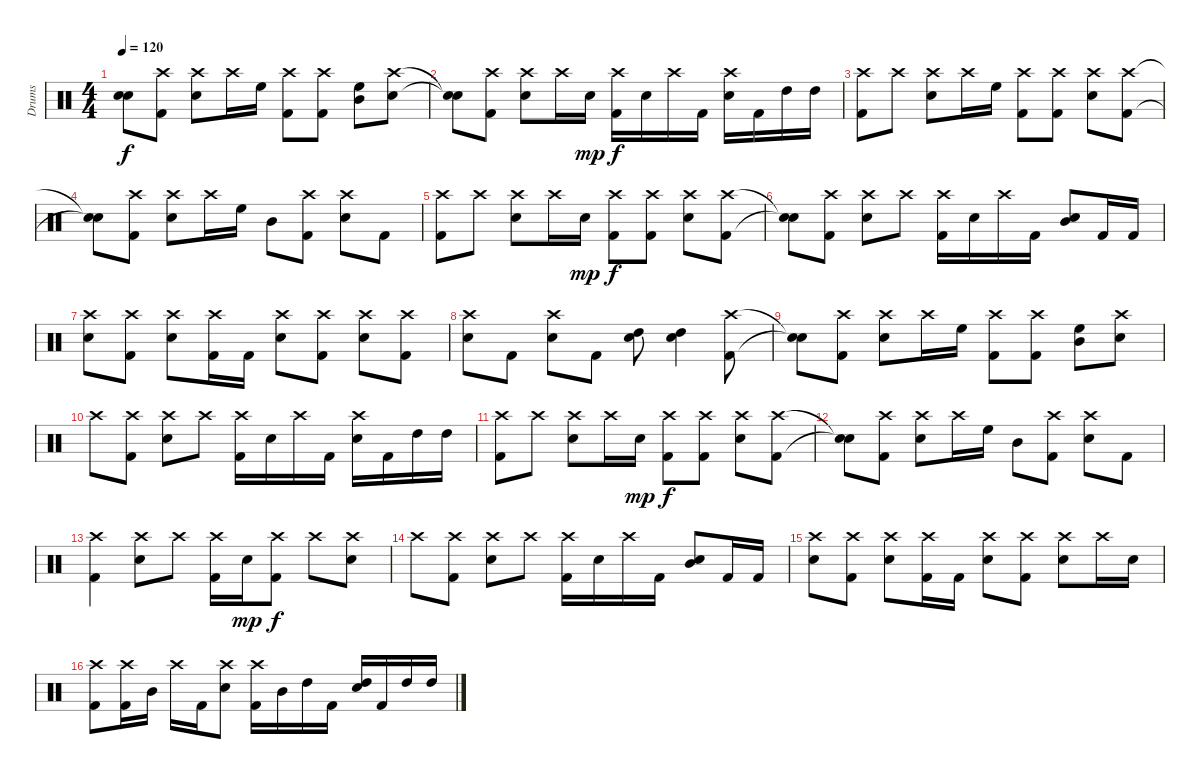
\track ("Drums" "Drums") {instrument percussion}
\staff {score}
\articulation defaults
\ts (4 4)
\tempo 120
\clef neutral
\ks c
("Snare (hit)"{t} "Snare (hit)"{t}).8{dy f} ("Crash high (hit)" "Kick (hit) 2").8 ("Crash high (hit)" "Electric Snare (hit)").8 "Crash high (hit)".16 "High Floor Tom (hit)".16 ("Crash high (hit)" "Kick (hit) 2").8 ("Crash high (hit)" "Kick (hit) 2").8 ("High Floor Tom (hit)" "Mid Tom (hit)").8 ("Crash high (hit)" "Electric Snare (hit)").8 |
("Snare (hit)"{t} "Snare (hit)"{t}).8 ("Crash high (hit)" "Kick (hit) 2").8 ("Crash high (hit)" "Electric Snare (hit)").8 "Crash high (hit)".16 "Electric Snare (hit)".16{dy mp} ("Crash high (hit)" "Kick (hit) 2").16{dy f} "Electric Snare (hit)".16 "Crash high (hit)".16 "Kick (hit) 2".16 ("Crash high (hit)" "Electric Snare (hit)").16 "Kick (hit) 2".16 "High Tom (hit)".16 "High Tom (hit)".16 |
("Crash high (hit)" "Kick (hit) 2").8 "Crash high (hit)".8 ("Crash high (hit)" "Electric Snare (hit)").8 "Crash high (hit)".16 "High Floor Tom (hit)".16 ("Crash high (hit)" "Kick (hit) 2").8 ("Crash high (hit)" "Kick (hit) 2").8 ("Crash high (hit)" "Electric Snare (hit)").8 ("Crash high (hit)" "Kick (hit) 2").8 |
("Snare (hit)"{t} "Snare (hit)"{t}).8 ("Crash high (hit)" "Kick (hit) 2").8 ("Crash high (hit)" "Electric Snare (hit)").8 "Crash high (hit)".16 "High Floor Tom (hit)".16 "Mid Tom (hit)".8 ("Crash high (hit)" "Kick (hit) 2").8 ("Crash high (hit)" "Electric Snare (hit)").8 "Kick (hit) 2".8 |
("Crash high (hit)" "Kick (hit) 2").8 "Crash high (hit)".8 ("Crash high (hit)" "Electric Snare (hit)").8 "Crash high (hit)".16 "Electric Snare (hit)".16{dy mp} ("Crash high (hit)" "Kick (hit) 2").8{dy f} ("Crash high (hit)" "Kick (hit) 2").8 ("Crash high (hit)" "Electric Snare (hit)").8 ("Crash high (hit)" "Kick (hit) 2").8 |
("Snare (hit)"{t} "Snare (hit)"{t}).8 ("Crash high (hit)" "Kick (hit) 2").8 ("Crash high (hit)" "Electric Snare (hit)").8 "Crash high (hit)".8 ("Crash high (hit)" "Kick (hit) 2").16 "Electric Snare (hit)".16 "Crash high (hit)".16 "Kick (hit) 2".16 ("Mid Tom (hit)" "Electric Snare (hit)").8 "Kick (hit) 2".16 "Kick (hit) 2".16 |
("Crash high (hit)" "Electric Snare (hit)").8 ("Crash high (hit)" "Kick (hit) 2").8 ("Crash high (hit)" "Electric Snare (hit)").8 ("Crash high (hit)" "Kick (hit) 2").16 "Kick (hit) 2".16 ("Crash high (hit)" "Electric Snare (hit)").8 ("Crash high (hit)" "Kick (hit) 2").8 ("Crash high (hit)" "Electric Snare (hit)").8 ("Crash high (hit)" "Kick (hit) 2").8 |
("Crash high (hit)" "Electric Snare (hit)").8 "Kick (hit) 2".8 ("Crash high (hit)" "Electric Snare (hit)").8 "Kick (hit) 2".8 ("Electric Snare (hit)" "High Tom (hit)").8 ("Electric Snare (hit)" "High Tom (hit)").4 ("Crash high (hit)" "Kick (hit) 2").8 |
("Snare (hit)"{t} "Snare (hit)"{t}).8 ("Crash high (hit)" "Kick (hit) 2").8 ("Crash high (hit)" "Electric Snare (hit)").8 "Crash high (hit)".16 "High Floor Tom (hit)".16 ("Crash high (hit)" "Kick (hit) 2").8 ("Crash high (hit)" "Kick (hit) 2").8 ("High Floor Tom (hit)" "Mid Tom (hit)").8 ("Crash high (hit)" "Electric Snare (hit)").8 |
"Crash high (hit)".8 ("Crash high (hit)" "Kick (hit) 2").8 ("Crash high (hit)" "Electric Snare (hit)").8 "Crash high (hit)".8 ("Crash high (hit)" "Kick (hit) 2").16 "Electric Snare (hit)".16 "Crash high (hit)".16 "Kick (hit) 2".16 ("Crash high (hit)" "Electric Snare (hit)").16 "Kick (hit) 2".16 "High Tom (hit)".16 "High Tom (hit)".16 |
("Crash high (hit)" "Kick (hit) 2").8 "Crash high (hit)".8 ("Crash high (hit)" "Electric Snare (hit)").8 "Crash high (hit)".16 "Electric Snare (hit)".16{dy mp} ("Crash high (hit)" "Kick (hit) 2").8{dy f} ("Crash high (hit)" "Kick (hit) 2").8 ("Crash high (hit)" "Electric Snare (hit)").8 ("Crash high (hit)" "Kick (hit) 2").8 |
("Snare (hit)"{t} "Snare (hit)"{t}).8 ("Crash high (hit)" "Kick (hit) 2").8 ("Crash high (hit)" "Electric Snare (hit)").8 "Crash high (hit)".16 "High Floor Tom (hit)".16 "Mid Tom (hit)".8 ("Crash high (hit)" "Kick (hit) 2").8 ("Crash high (hit)" "Electric Snare (hit)").8 "Kick (hit) 2".8 |
("Crash high (hit)" "Kick (hit) 2").4 ("Crash high (hit)" "Electric Snare (hit)").8 "Crash high (hit)".8 ("Crash high (hit)" "Kick (hit) 2").16 "Electric Snare (hit)".16{dy mp} ("Crash high (hit)" "Kick (hit) 2").8{dy f} "Crash high (hit)".8 ("Crash high (hit)" "Electric Snare (hit)").8 |
"Crash high (hit)".8 ("Crash high (hit)" "Kick (hit) 2").8 ("Crash high (hit)" "Electric Snare (hit)").8 "Crash high (hit)".8 ("Crash high (hit)" "Kick (hit) 2").16 "Electric Snare (hit)".16 "Crash high (hit)".16 "Kick (hit) 2".16 ("Mid Tom (hit)" "Electric Snare (hit)").8 "Kick (hit) 2".16 "Kick (hit) 2".16 |
("Crash high (hit)" "Electric Snare (hit)").8 ("Crash high (hit)" "Kick (hit) 2").8 ("Crash high (hit)" "Electric Snare (hit)").8 ("Crash high (hit)" "Kick (hit) 2").16 "Kick (hit) 2".16 ("Crash high (hit)" "Electric Snare (hit)").8 ("Crash high (hit)" "Kick (hit) 2").8 ("Crash high (hit)" "Electric Snare (hit)").8 "Crash high (hit)".16 "Electric Snare (hit)".16 |
("Crash high (hit)" "Kick (hit) 2").8 ("Crash high (hit)" "Kick (hit) 2").16 "Mid Tom (hit)".16 "Crash high (hit)".16 "Kick (hit) 2".16 ("Crash high (hit)" "Electric Snare (hit)").8 ("Crash high (hit)" "Kick (hit) 2").16 "Mid Tom (hit)".16 "High Tom (hit)".16 "Kick (hit) 2".16 ("Electric Snare (hit)" "High Tom (hit)").16 "Kick (hit) 2".16 "High Tom (hit)".16 "High Tom (hit)".16
